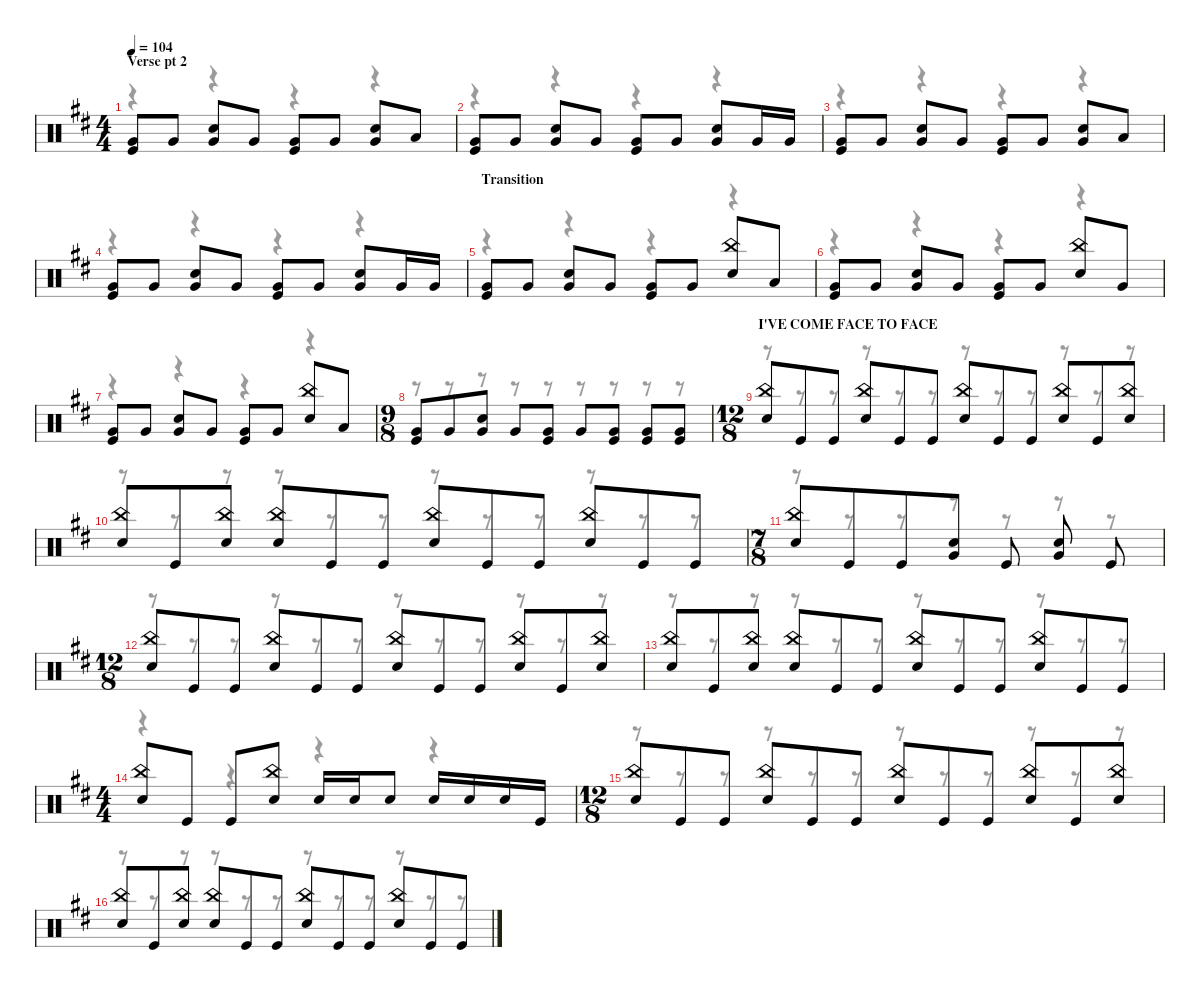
\defaultSystemsLayout 4
\hideDynamics
\bracketExtendMode nobrackets
\singleTrackTrackNamePolicy hidden
\multiTrackTrackNamePolicy hidden
\firstSystemTrackNameMode fullname
\otherSystemsTrackNameOrientation horizontal
\track ("Drums" "drm.") {instrument percussion}
\staff {score}
\articulation defaults
\voice
\ts (4 4)
\section ("" "Verse pt 2")
\tempo 104
\clef neutral
\ks bminor
("Very Low Tom (hit)"{acc forcenatural} "Kick (hit)"{acc forcenatural}).8{dy mp beam Up} "Very Low Tom (hit)"{acc forcenatural}.8{beam Up} ("Very Low Tom (hit)"{acc forcenatural} "Snare (hit) 2"{acc forcenatural}).8{beam Up} "Very Low Tom (hit)"{acc forcenatural}.8{beam Up} ("Very Low Tom (hit)"{acc forcenatural} "Kick (hit)"{acc forcenatural}).8{beam Up} "Very Low Tom (hit)"{acc forcenatural}.8{beam Up} ("Very Low Tom (hit)"{acc forcenatural} "Snare (hit) 2"{acc forcenatural}).8{beam Up} "Low Tom (hit)"{acc forcenatural}.8{beam Up} |
("Very Low Tom (hit)"{acc forcenatural} "Kick (hit)"{acc forcenatural}).8{beam Up} "Very Low Tom (hit)"{acc forcenatural}.8{beam Up} ("Very Low Tom (hit)"{acc forcenatural} "Snare (hit) 2"{acc forcenatural}).8{beam Up} "Very Low Tom (hit)"{acc forcenatural}.8{beam Up} ("Very Low Tom (hit)"{acc forcenatural} "Kick (hit)"{acc forcenatural}).8{beam Up} "Very Low Tom (hit)"{acc forcenatural}.8{beam Up} ("Very Low Tom (hit)"{acc forcenatural} "Snare (hit) 2"{acc forcenatural}).8{beam Up} "Very Low Tom (hit)"{acc forcenatural}.16{beam Up} "Very Low Tom (hit)"{acc forcenatural}.16{beam Up} |
("Very Low Tom (hit)"{acc forcenatural} "Kick (hit)"{acc forcenatural}).8{beam Up} "Very Low Tom (hit)"{acc forcenatural}.8{beam Up} ("Very Low Tom (hit)"{acc forcenatural} "Snare (hit) 2"{acc forcenatural}).8{beam Up} "Very Low Tom (hit)"{acc forcenatural}.8{beam Up} ("Very Low Tom (hit)"{acc forcenatural} "Kick (hit)"{acc forcenatural}).8{beam Up} "Very Low Tom (hit)"{acc forcenatural}.8{beam Up} ("Very Low Tom (hit)"{acc forcenatural} "Snare (hit) 2"{acc forcenatural}).8{beam Up} "Low Tom (hit)"{acc forcenatural}.8{beam Up} |
("Very Low Tom (hit)"{acc forcenatural} "Kick (hit)"{acc forcenatural}).8{beam Up} "Very Low Tom (hit)"{acc forcenatural}.8{beam Up} ("Very Low Tom (hit)"{acc forcenatural} "Snare (hit) 2"{acc forcenatural}).8{beam Up} "Very Low Tom (hit)"{acc forcenatural}.8{beam Up} ("Very Low Tom (hit)"{acc forcenatural} "Kick (hit)"{acc forcenatural}).8{beam Up} "Very Low Tom (hit)"{acc forcenatural}.8{beam Up} ("Very Low Tom (hit)"{acc forcenatural} "Snare (hit) 2"{acc forcenatural}).8{beam Up} "Very Low Tom (hit)"{acc forcenatural}.16{beam Up} "Very Low Tom (hit)"{acc forcenatural}.16{beam Up} |
\section ("" "Transition")
("Very Low Tom (hit)"{acc forcenatural} "Kick (hit)"{acc forcenatural}).8{beam Up} "Very Low Tom (hit)"{acc forcenatural}.8{beam Up} ("Very Low Tom (hit)"{acc forcenatural} "Snare (hit) 2"{acc forcenatural}).8{beam Up} "Very Low Tom (hit)"{acc forcenatural}.8{beam Up} ("Very Low Tom (hit)"{acc forcenatural} "Kick (hit)"{acc forcenatural}).8{beam Up} "Very Low Tom (hit)"{acc forcenatural}.8{beam Up} ("Snare (hit) 2"{acc forcenatural} "China (hit)"{acc forcenatural}).8{beam Up} "Low Tom (hit)"{acc forcenatural}.8{beam Up} |
("Very Low Tom (hit)"{acc forcenatural} "Kick (hit)"{acc forcenatural}).8{beam Up} "Very Low Tom (hit)"{acc forcenatural}.8{beam Up} ("Very Low Tom (hit)"{acc forcenatural} "Snare (hit) 2"{acc forcenatural}).8{beam Up} "Very Low Tom (hit)"{acc forcenatural}.8{beam Up} ("Very Low Tom (hit)"{acc forcenatural} "Kick (hit)"{acc forcenatural}).8{beam Up} "Very Low Tom (hit)"{acc forcenatural}.8{beam Up} ("Snare (hit) 2"{acc forcenatural} "China (hit)"{acc forcenatural}).8{beam Up} "Very Low Tom (hit)"{acc forcenatural}.8{beam Up} |
("Very Low Tom (hit)"{acc forcenatural} "Kick (hit)"{acc forcenatural}).8{beam Up} "Very Low Tom (hit)"{acc forcenatural}.8{beam Up} ("Very Low Tom (hit)"{acc forcenatural} "Snare (hit) 2"{acc forcenatural}).8{beam Up} "Very Low Tom (hit)"{acc forcenatural}.8{beam Up} ("Very Low Tom (hit)"{acc forcenatural} "Kick (hit)"{acc forcenatural}).8{beam Up} "Very Low Tom (hit)"{acc forcenatural}.8{beam Up} ("Snare (hit) 2"{acc forcenatural} "China (hit)"{acc forcenatural}).8{beam Up} "Low Tom (hit)"{acc forcenatural}.8{beam Up} |
\ts (9 8)
\beaming (8 3 2 2 2)
("Very Low Tom (hit)"{acc forcenatural} "Kick (hit)"{acc forcenatural}).8{beam Up} "Very Low Tom (hit)"{acc forcenatural}.8{beam Up} ("Very Low Tom (hit)"{acc forcenatural} "Snare (hit) 2"{acc forcenatural}).8{beam Up} "Very Low Tom (hit)"{acc forcenatural}.8{beam Up} ("Very Low Tom (hit)"{acc forcenatural} "Kick (hit)"{acc forcenatural}).8{beam Up} "Very Low Tom (hit)"{acc forcenatural}.8{beam Up} ("Kick (hit)"{acc forcenatural} "Very Low Tom (hit)"{acc forcenatural}).8{dy f beam Up} ("Kick (hit)"{acc forcenatural} "Very Low Tom (hit)"{acc forcenatural}).8{beam Up} ("Kick (hit)"{acc forcenatural} "Very Low Tom (hit)"{acc forcenatural}).8{beam Up} |
\ts (12 8)
\beaming (8 3 3 3 3)
\section ("" "I'VE COME FACE TO FACE")
("Snare (hit) 2"{acc forcenatural} "China (hit)"{acc forcenatural}).8{beam Up} "Kick (hit)"{acc forcenatural}.8{beam Up} "Kick (hit)"{acc forcenatural}.8{beam Up} ("Snare (hit) 2"{acc forcenatural} "China (hit)"{acc forcenatural}).8{beam Up} "Kick (hit)"{acc forcenatural}.8{beam Up} "Kick (hit)"{acc forcenatural}.8{beam Up} ("Snare (hit) 2"{acc forcenatural} "China (hit)"{acc forcenatural}).8{beam Up} "Kick (hit)"{acc forcenatural}.8{beam Up} "Kick (hit)"{acc forcenatural}.8{beam Up} ("Snare (hit) 2"{acc forcenatural} "China (hit)"{acc forcenatural}).8{beam Up} "Kick (hit)"{acc forcenatural}.8{beam Up} ("Snare (hit) 2"{acc forcenatural} "China (hit)"{acc forcenatural}).8{beam Up} |
("Snare (hit) 2"{acc forcenatural} "China (hit)"{acc forcenatural}).8{beam Up} "Kick (hit)"{acc forcenatural}.8{beam Up} ("Snare (hit) 2"{acc forcenatural} "China (hit)"{acc forcenatural}).8{beam Up} ("Snare (hit) 2"{acc forcenatural} "China (hit)"{acc forcenatural}).8{beam Up} "Kick (hit)"{acc forcenatural}.8{beam Up} "Kick (hit)"{acc forcenatural}.8{beam Up} ("Snare (hit) 2"{acc forcenatural} "China (hit)"{acc forcenatural}).8{beam Up} "Kick (hit)"{acc forcenatural}.8{beam Up} "Kick (hit)"{acc forcenatural}.8{beam Up} ("Snare (hit) 2"{acc forcenatural} "China (hit)"{acc forcenatural}).8{beam Up} "Kick (hit)"{acc forcenatural}.8{beam Up} "Kick (hit)"{acc forcenatural}.8{beam Up} |
\ts (7 8)
\beaming (8 4 1 1 1)
("Snare (hit) 2"{acc forcenatural} "China (hit)"{acc forcenatural}).8{beam Up} "Kick (hit)"{acc forcenatural}.8{beam Up} "Kick (hit)"{acc forcenatural}.8{beam Up} ("Snare (hit) 2"{acc forcenatural} "Very Low Tom (hit)"{acc forcenatural}).8{beam Up} "Kick (hit)"{acc forcenatural}.8{beam Up} ("Snare (hit) 2"{acc forcenatural} "Very Low Tom (hit)"{acc forcenatural}).8{beam Up} "Kick (hit)"{acc forcenatural}.8{beam Up} |
\ts (12 8)
\beaming (8 3 3 3 3)
("Snare (hit) 2"{acc forcenatural} "China (hit)"{acc forcenatural}).8{beam Up} "Kick (hit)"{acc forcenatural}.8{beam Up} "Kick (hit)"{acc forcenatural}.8{beam Up} ("Snare (hit) 2"{acc forcenatural} "China (hit)"{acc forcenatural}).8{beam Up} "Kick (hit)"{acc forcenatural}.8{beam Up} "Kick (hit)"{acc forcenatural}.8{beam Up} ("Snare (hit) 2"{acc forcenatural} "China (hit)"{acc forcenatural}).8{beam Up} "Kick (hit)"{acc forcenatural}.8{beam Up} "Kick (hit)"{acc forcenatural}.8{beam Up} ("Snare (hit) 2"{acc forcenatural} "China (hit)"{acc forcenatural}).8{beam Up} "Kick (hit)"{acc forcenatural}.8{beam Up} ("Snare (hit) 2"{acc forcenatural} "China (hit)"{acc forcenatural}).8{beam Up} |
("Snare (hit) 2"{acc forcenatural} "China (hit)"{acc forcenatural}).8{beam Up} "Kick (hit)"{acc forcenatural}.8{beam Up} ("Snare (hit) 2"{acc forcenatural} "China (hit)"{acc forcenatural}).8{beam Up} ("Snare (hit) 2"{acc forcenatural} "China (hit)"{acc forcenatural}).8{beam Up} "Kick (hit)"{acc forcenatural}.8{beam Up} "Kick (hit)"{acc forcenatural}.8{beam Up} ("Snare (hit) 2"{acc forcenatural} "China (hit)"{acc forcenatural}).8{beam Up} "Kick (hit)"{acc forcenatural}.8{beam Up} "Kick (hit)"{acc forcenatural}.8{beam Up} ("Snare (hit) 2"{acc forcenatural} "China (hit)"{acc forcenatural}).8{beam Up} "Kick (hit)"{acc forcenatural}.8{beam Up} "Kick (hit)"{acc forcenatural}.8{beam Up} |
\ts (4 4)
\beaming (8 2 2 2 2)
("Snare (hit) 2"{acc forcenatural} "China (hit)"{acc forcenatural}).8{beam Up} "Kick (hit)"{acc forcenatural}.8{beam Up} "Kick (hit)"{acc forcenatural}.8{beam Up} ("Snare (hit) 2"{acc forcenatural} "China (hit)"{acc forcenatural}).8{beam Up} "Snare (hit) 2"{acc forcenatural}.16{beam Up} "Snare (hit) 2"{acc forcenatural}.16{beam Up} "Snare (hit) 2"{acc forcenatural}.8{beam Up} "Snare (hit) 2"{acc forcenatural}.16{beam Up} "Snare (hit) 2"{acc forcenatural}.16{beam Up} "Snare (hit) 2"{acc forcenatural}.16{beam Up} "Kick (hit)"{acc forcenatural}.16{beam Up} |
\ts (12 8)
\beaming (8 3 3 3 3)
("Snare (hit) 2"{acc forcenatural} "China (hit)"{acc forcenatural}).8{beam Up} "Kick (hit)"{acc forcenatural}.8{beam Up} "Kick (hit)"{acc forcenatural}.8{beam Up} ("Snare (hit) 2"{acc forcenatural} "China (hit)"{acc forcenatural}).8{beam Up} "Kick (hit)"{acc forcenatural}.8{beam Up} "Kick (hit)"{acc forcenatural}.8{beam Up} ("Snare (hit) 2"{acc forcenatural} "China (hit)"{acc forcenatural}).8{beam Up} "Kick (hit)"{acc forcenatural}.8{beam Up} "Kick (hit)"{acc forcenatural}.8{beam Up} ("Snare (hit) 2"{acc forcenatural} "China (hit)"{acc forcenatural}).8{beam Up} "Kick (hit)"{acc forcenatural}.8{beam Up} ("Snare (hit) 2"{acc forcenatural} "China (hit)"{acc forcenatural}).8{beam Up} |
("Snare (hit) 2"{acc forcenatural} "China (hit)"{acc forcenatural}).8{beam Up} "Kick (hit)"{acc forcenatural}.8{beam Up} ("Snare (hit) 2"{acc forcenatural} "China (hit)"{acc forcenatural}).8{beam Up} ("Snare (hit) 2"{acc forcenatural} "China (hit)"{acc forcenatural}).8{beam Up} "Kick (hit)"{acc forcenatural}.8{beam Up} "Kick (hit)"{acc forcenatural}.8{beam Up} ("Snare (hit) 2"{acc forcenatural} "China (hit)"{acc forcenatural}).8{beam Up} "Kick (hit)"{acc forcenatural}.8{beam Up} "Kick (hit)"{acc forcenatural}.8{beam Up} ("Snare (hit) 2"{acc forcenatural} "China (hit)"{acc forcenatural}).8{beam Up} "Kick (hit)"{acc forcenatural}.8{beam Up} "Kick (hit)"{acc forcenatural}.8{beam Up}
\voice
\clef neutral
\ottava regular
\simile none
\ks bminor
r.4{dy mf beam Down} r.4{beam Down} r.4{beam Down} r.4{beam Down} |
r.4{beam Down} r.4{beam Down} r.4{beam Down} r.4{beam Down} |
r.4{beam Down} r.4{beam Down} r.4{beam Down} r.4{beam Down} |
r.4{beam Down} r.4{beam Down} r.4{beam Down} r.4{beam Down} |
r.4{beam Down} r.4{beam Down} r.4{beam Down} r.4{beam Down} |
r.4{beam Down} r.4{beam Down} r.4{beam Down} r.4{beam Down} |
r.4{beam Down} r.4{beam Down} r.4{beam Down} r.4{beam Down} |
r.8{beam Down} r.8{beam Down} r.8{beam Down} r.8{beam Down} r.8{beam Down} r.8{beam Down} r.8{beam Down} r.8{beam Down} r.8{beam Down} |
r.8{beam Down} r.8{beam Down} r.8{beam Down} r.8{beam Down} r.8{beam Down} r.8{beam Down} r.8{beam Down} r.8{beam Down} r.8{beam Down} r.8{beam Down} r.8{beam Down} r.8{beam Down} |
r.8{beam Down} r.8{beam Down} r.8{beam Down} r.8{beam Down} r.8{beam Down} r.8{beam Down} r.8{beam Down} r.8{beam Down} r.8{beam Down} r.8{beam Down} r.8{beam Down} r.8{beam Down} |
r.8{beam Down} r.8{beam Down} r.8{beam Down} r.8{beam Down} r.8{beam Down} r.8{beam Down} r.8{beam Down} |
r.8{beam Down} r.8{beam Down} r.8{beam Down} r.8{beam Down} r.8{beam Down} r.8{beam Down} r.8{beam Down} r.8{beam Down} r.8{beam Down} r.8{beam Down} r.8{beam Down} r.8{beam Down} |
r.8{beam Down} r.8{beam Down} r.8{beam Down} r.8{beam Down} r.8{beam Down} r.8{beam Down} r.8{beam Down} r.8{beam Down} r.8{beam Down} r.8{beam Down} r.8{beam Down} r.8{beam Down} |
r.4{beam Down} r.4{beam Down} r.4{beam Down} r.4{beam Down} |
r.8{beam Down} r.8{beam Down} r.8{beam Down} r.8{beam Down} r.8{beam Down} r.8{beam Down} r.8{beam Down} r.8{beam Down} r.8{beam Down} r.8{beam Down} r.8{beam Down} r.8{beam Down} |
r.8{beam Down} r.8{beam Down} r.8{beam Down} r.8{beam Down} r.8{beam Down} r.8{beam Down} r.8{beam Down} r.8{beam Down} r.8{beam Down} r.8{beam Down} r.8{beam Down} r.8{beam Down}
